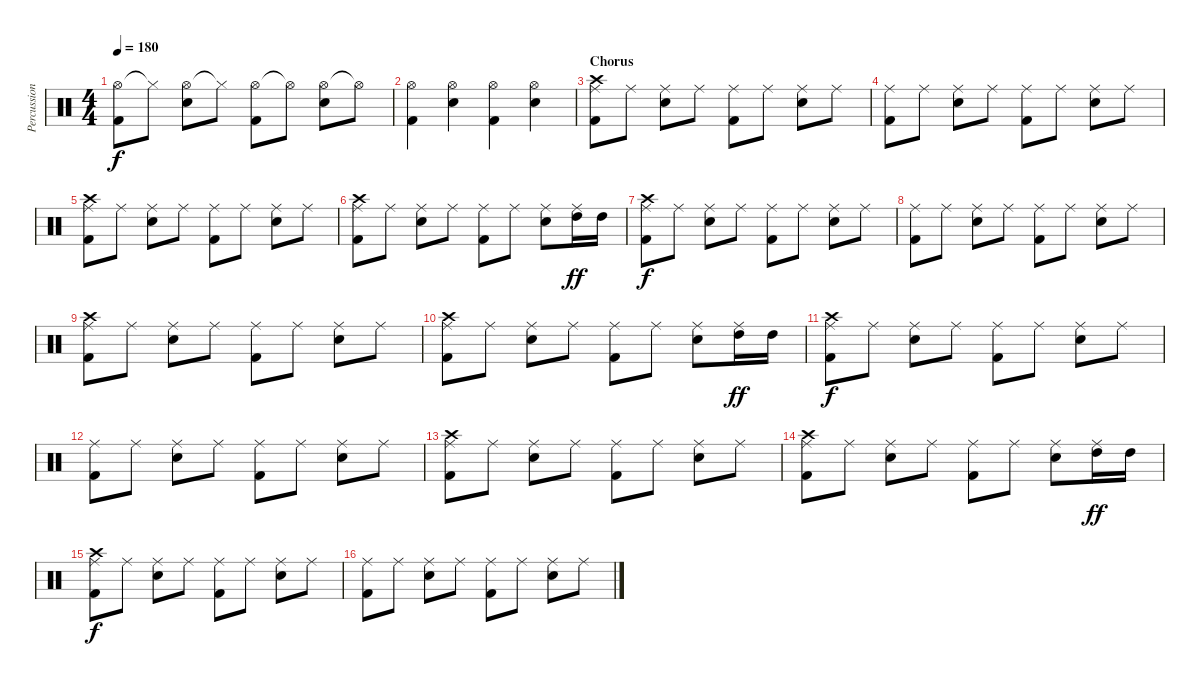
\track ("Percussion" "Percussion") {instrument percussion}
\staff {score}
\articulation defaults
\ts (4 4)
\tempo 180
\clef neutral
\ks c
("Hi-Hat (open)" "Kick (hit) 2").8{dy f} "Hi-Hat (closed)"{t}.8 ("Hi-Hat (open)" "Electric Snare (hit)").8 "Hi-Hat (closed)"{t}.8 ("Hi-Hat (open)" "Kick (hit) 2").8 "Hi-Hat (open)"{t}.8 ("Hi-Hat (open)" "Electric Snare (hit)").8 "Hi-Hat (open)"{t}.8 |
("Hi-Hat (open)" "Kick (hit) 2").4 ("Hi-Hat (open)" "Electric Snare (hit)").4 ("Hi-Hat (open)" "Kick (hit) 2").4 ("Hi-Hat (open)" "Electric Snare (hit)").4 |
\section ("" "Chorus")
("Crash high (hit)" "Ride (middle)" "Kick (hit) 2").8 "Ride (middle)".8 ("Ride (middle)" "Electric Snare (hit)").8 "Ride (middle)".8 ("Ride (middle)" "Kick (hit) 2").8 "Ride (middle)".8 ("Ride (middle)" "Electric Snare (hit)").8 "Ride (middle)".8 |
("Ride (middle)" "Kick (hit) 2").8 "Ride (middle)".8 ("Ride (middle)" "Electric Snare (hit)").8 "Ride (middle)".8 ("Ride (middle)" "Kick (hit) 2").8 "Ride (middle)".8 ("Ride (middle)" "Electric Snare (hit)").8 "Ride (middle)".8 |
("Crash high (hit)" "Ride (middle)" "Kick (hit) 2").8 "Ride (middle)".8 ("Ride (middle)" "Electric Snare (hit)").8 "Ride (middle)".8 ("Ride (middle)" "Kick (hit) 2").8 "Ride (middle)".8 ("Ride (middle)" "Electric Snare (hit)").8 "Ride (middle)".8 |
("Crash high (hit)" "Ride (middle)" "Kick (hit) 2").8 "Ride (middle)".8 ("Ride (middle)" "Electric Snare (hit)").8 "Ride (middle)".8 ("Ride (middle)" "Kick (hit) 2").8 "Ride (middle)".8 ("Ride (middle)" "Electric Snare (hit)").8 ("Ride (middle)" "High Tom (hit)").16{dy ff} "High Tom (hit)".16 |
("Crash high (hit)" "Ride (middle)" "Kick (hit) 2").8{dy f} "Ride (middle)".8 ("Ride (middle)" "Electric Snare (hit)").8 "Ride (middle)".8 ("Ride (middle)" "Kick (hit) 2").8 "Ride (middle)".8 ("Ride (middle)" "Electric Snare (hit)").8 "Ride (middle)".8 |
("Ride (middle)" "Kick (hit) 2").8 "Ride (middle)".8 ("Ride (middle)" "Electric Snare (hit)").8 "Ride (middle)".8 ("Ride (middle)" "Kick (hit) 2").8 "Ride (middle)".8 ("Ride (middle)" "Electric Snare (hit)").8 "Ride (middle)".8 |
("Crash high (hit)" "Ride (middle)" "Kick (hit) 2").8 "Ride (middle)".8 ("Ride (middle)" "Electric Snare (hit)").8 "Ride (middle)".8 ("Ride (middle)" "Kick (hit) 2").8 "Ride (middle)".8 ("Ride (middle)" "Electric Snare (hit)").8 "Ride (middle)".8 |
("Crash high (hit)" "Ride (middle)" "Kick (hit) 2").8 "Ride (middle)".8 ("Ride (middle)" "Electric Snare (hit)").8 "Ride (middle)".8 ("Ride (middle)" "Kick (hit) 2").8 "Ride (middle)".8 ("Ride (middle)" "Electric Snare (hit)").8 ("Ride (middle)" "High Tom (hit)").16{dy ff} "High Tom (hit)".16 |
("Crash high (hit)" "Ride (middle)" "Kick (hit) 2").8{dy f} "Ride (middle)".8 ("Ride (middle)" "Electric Snare (hit)").8 "Ride (middle)".8 ("Ride (middle)" "Kick (hit) 2").8 "Ride (middle)".8 ("Ride (middle)" "Electric Snare (hit)").8 "Ride (middle)".8 |
("Ride (middle)" "Kick (hit) 2").8 "Ride (middle)".8 ("Ride (middle)" "Electric Snare (hit)").8 "Ride (middle)".8 ("Ride (middle)" "Kick (hit) 2").8 "Ride (middle)".8 ("Ride (middle)" "Electric Snare (hit)").8 "Ride (middle)".8 |
("Crash high (hit)" "Ride (middle)" "Kick (hit) 2").8 "Ride (middle)".8 ("Ride (middle)" "Electric Snare (hit)").8 "Ride (middle)".8 ("Ride (middle)" "Kick (hit) 2").8 "Ride (middle)".8 ("Ride (middle)" "Electric Snare (hit)").8 "Ride (middle)".8 |
("Crash high (hit)" "Ride (middle)" "Kick (hit) 2").8 "Ride (middle)".8 ("Ride (middle)" "Electric Snare (hit)").8 "Ride (middle)".8 ("Ride (middle)" "Kick (hit) 2").8 "Ride (middle)".8 ("Ride (middle)" "Electric Snare (hit)").8 ("Ride (middle)" "High Tom (hit)").16{dy ff} "High Tom (hit)".16 |
("Crash high (hit)" "Ride (middle)" "Kick (hit) 2").8{dy f} "Ride (middle)".8 ("Ride (middle)" "Electric Snare (hit)").8 "Ride (middle)".8 ("Ride (middle)" "Kick (hit) 2").8 "Ride (middle)".8 ("Ride (middle)" "Electric Snare (hit)").8 "Ride (middle)".8 |
("Ride (middle)" "Kick (hit) 2").8 "Ride (middle)".8 ("Ride (middle)" "Electric Snare (hit)").8 "Ride (middle)".8 ("Ride (middle)" "Kick (hit) 2").8 "Ride (middle)".8 ("Ride (middle)" "Electric Snare (hit)").8 "Ride (middle)".8
